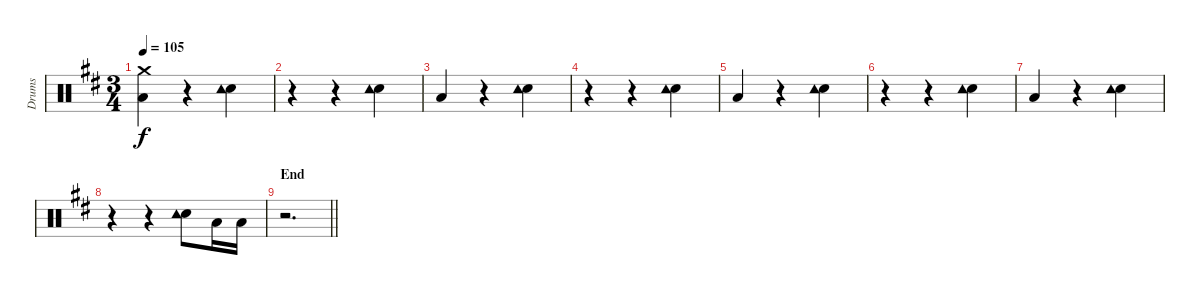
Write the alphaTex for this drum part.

\track ("Drums" "Drums") {instrument percussion}
\staff {score}
\articulation defaults
\ts (3 4)
\tempo 105
\clef neutral
\ks d
("Crash medium (hit)" "Low Floor Tom (hit)").4{dy f} r.4 ("Snare (hit) 2" "Tambourine (hit)").4 |
r.4 r.4 ("Snare (hit) 2" "Tambourine (hit)").4 |
"Low Floor Tom (hit)".4 r.4 ("Snare (hit) 2" "Tambourine (hit)").4 |
r.4 r.4 ("Snare (hit) 2" "Tambourine (hit)").4 |
"Low Floor Tom (hit)".4 r.4 ("Snare (hit) 2" "Tambourine (hit)").4 |
r.4 r.4 ("Snare (hit) 2" "Tambourine (hit)").4 |
"Low Floor Tom (hit)".4 r.4 ("Snare (hit) 2" "Tambourine (hit)").4 |
r.4 r.4 ("Snare (hit) 2" "Tambourine (hit)").8 "Low Floor Tom (hit)".16 "Low Floor Tom (hit)".16 |
\section ("" "End")
\barLineRight lightlight
r.2{d}
